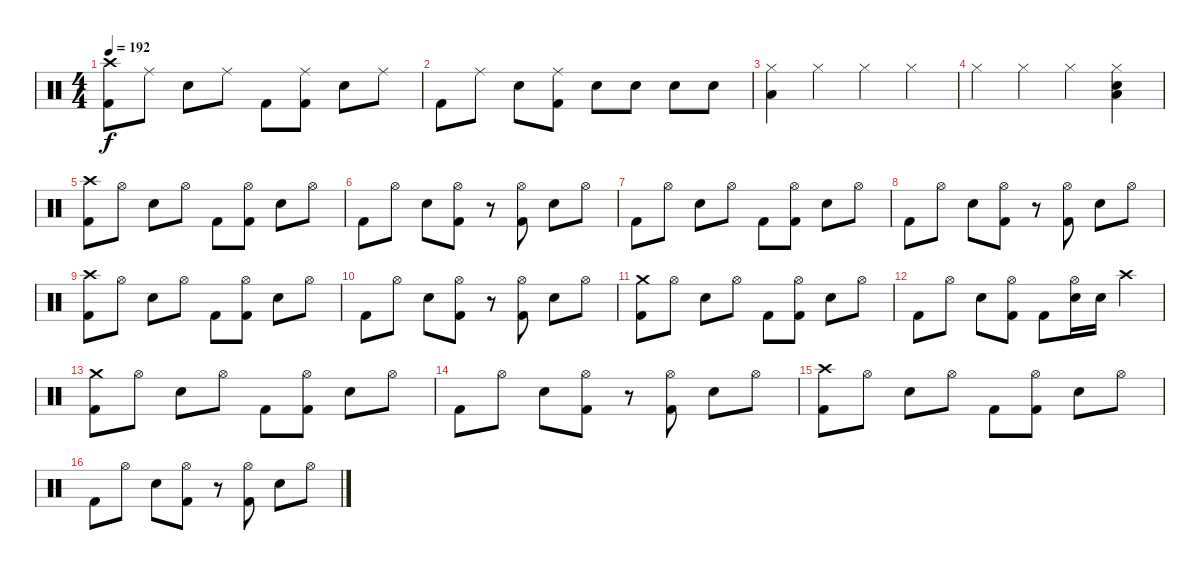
\track "" {instrument percussion}
\staff {score}
\articulation defaults
\ts (4 4)
\tempo 192
\clef neutral
\ks c
("Crash high (hit)" "Kick (hit) 2").8{dy f} "Ride (middle)".8 "Snare (hit) 2".8 "Ride (middle)".8 "Kick (hit) 2".8 ("Ride (middle)" "Kick (hit) 2").8 "Snare (hit) 2".8 "Ride (middle)".8 |
"Kick (hit) 2".8 "Ride (middle)".8 "Snare (hit) 2".8 ("Ride (middle)" "Kick (hit) 2").8 "Electric Snare (hit)".8 "Electric Snare (hit)".8 "Snare (hit) 2".8 "Snare (hit) 2".8 |
("Hi-Hat (closed)" "Low Floor Tom (hit)").4 "Hi-Hat (closed)".4 "Hi-Hat (closed)".4 "Hi-Hat (closed)".4 |
"Hi-Hat (closed)".4 "Hi-Hat (closed)".4 "Hi-Hat (closed)".4 ("Hi-Hat (closed)" "Low Floor Tom (hit)" "Snare (hit) 2").4 |
("Crash high (hit)" "Kick (hit) 2").8 "Hi-Hat (open)".8 "Snare (hit) 2".8 "Hi-Hat (open)".8 "Kick (hit) 2".8 ("Hi-Hat (open)" "Kick (hit) 2").8 "Snare (hit) 2".8 "Hi-Hat (open)".8 |
"Kick (hit) 2".8 "Hi-Hat (open)".8 "Snare (hit) 2".8 ("Hi-Hat (open)" "Kick (hit) 2").8 r.8 ("Hi-Hat (open)" "Kick (hit) 2").8 "Snare (hit) 2".8 "Hi-Hat (open)".8 |
"Kick (hit) 2".8 "Hi-Hat (open)".8 "Snare (hit) 2".8 "Hi-Hat (open)".8 "Kick (hit) 2".8 ("Hi-Hat (open)" "Kick (hit) 2").8 "Snare (hit) 2".8 "Hi-Hat (open)".8 |
"Kick (hit) 2".8 "Hi-Hat (open)".8 "Snare (hit) 2".8 ("Hi-Hat (open)" "Kick (hit) 2").8 r.8 ("Hi-Hat (open)" "Kick (hit) 2").8 "Snare (hit) 2".8 "Hi-Hat (open)".8 |
("Crash high (hit)" "Kick (hit) 2").8 "Hi-Hat (open)".8 "Snare (hit) 2".8 "Hi-Hat (open)".8 "Kick (hit) 2".8 ("Hi-Hat (open)" "Kick (hit) 2").8 "Snare (hit) 2".8 "Hi-Hat (open)".8 |
"Kick (hit) 2".8 "Hi-Hat (open)".8 "Snare (hit) 2".8 ("Hi-Hat (open)" "Kick (hit) 2").8 r.8 ("Hi-Hat (open)" "Kick (hit) 2").8 "Snare (hit) 2".8 "Hi-Hat (open)".8 |
("Crash medium (hit)" "Kick (hit) 2").8 "Hi-Hat (open)".8 "Snare (hit) 2".8 "Hi-Hat (open)".8 "Kick (hit) 2".8 ("Hi-Hat (open)" "Kick (hit) 2").8 "Snare (hit) 2".8 "Hi-Hat (open)".8 |
"Kick (hit) 2".8 "Hi-Hat (open)".8 "Snare (hit) 2".8 ("Hi-Hat (open)" "Kick (hit) 2").8 "Kick (hit) 2".8 ("Hi-Hat (open)" "Electric Snare (hit)").16 "Electric Snare (hit)".16 "Crash high (hit)".4 |
("Crash medium (hit)" "Kick (hit) 2").8 "Hi-Hat (open)".8 "Snare (hit) 2".8 "Hi-Hat (open)".8 "Kick (hit) 2".8 ("Hi-Hat (open)" "Kick (hit) 2").8 "Snare (hit) 2".8 "Hi-Hat (open)".8 |
"Kick (hit) 2".8 "Hi-Hat (open)".8 "Snare (hit) 2".8 ("Hi-Hat (open)" "Kick (hit) 2").8 r.8 ("Hi-Hat (open)" "Kick (hit) 2").8 "Snare (hit) 2".8 "Hi-Hat (open)".8 |
("Crash high (hit)" "Kick (hit) 2").8 "Hi-Hat (open)".8 "Snare (hit) 2".8 "Hi-Hat (open)".8 "Kick (hit) 2".8 ("Hi-Hat (open)" "Kick (hit) 2").8 "Snare (hit) 2".8 "Hi-Hat (open)".8 |
"Kick (hit) 2".8 "Hi-Hat (open)".8 "Snare (hit) 2".8 ("Hi-Hat (open)" "Kick (hit) 2").8 r.8 ("Hi-Hat (open)" "Kick (hit) 2").8 "Snare (hit) 2".8 "Hi-Hat (open)".8
